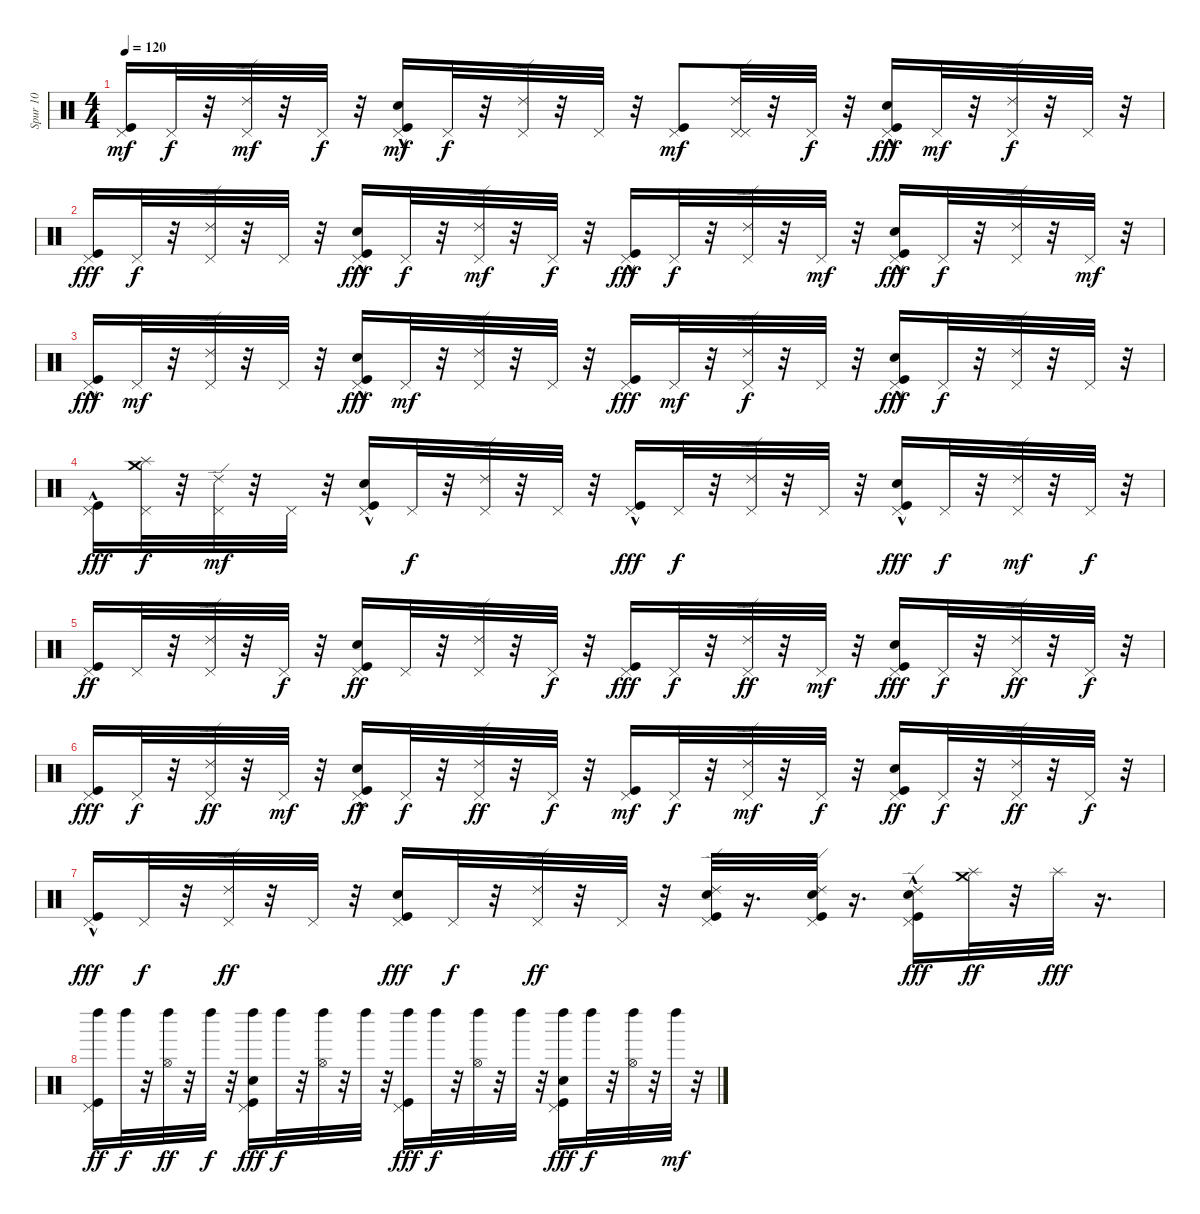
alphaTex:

\track ("Spur 10" "Spur 10") {instrument percussion}
\staff {score}
\articulation defaults
\ts (4 4)
\tempo 120
\clef neutral
\ks c
("Kick (hit)" "Pedal Hi-Hat (hit)").16{dy mf} "Pedal Hi-Hat (hit)".32{dy f} r.32 ("Ride (edge) 2" "Pedal Hi-Hat (hit)").32{dy mf} r.32 "Pedal Hi-Hat (hit)".32{dy f} r.32 ("Snare (hit) 2"{hac} "Kick (hit)" "Pedal Hi-Hat (hit)").16{dy mf} "Pedal Hi-Hat (hit)".32{dy f} r.32 ("Ride (edge) 2" "Pedal Hi-Hat (hit)").32 r.32 "Pedal Hi-Hat (hit)".32 r.32 ("Kick (hit)" "Pedal Hi-Hat (hit)").8{dy mf} ("Ride (edge) 2" "Pedal Hi-Hat (hit)" "Pedal Hi-Hat (hit)").32 r.32 "Pedal Hi-Hat (hit)".32{dy f} r.32 ("Kick (hit)"{hac} "Snare (hit) 2"{hac} "Pedal Hi-Hat (hit)").16{dy fff} "Pedal Hi-Hat (hit)".32{dy mf} r.32 ("Ride (edge) 2" "Pedal Hi-Hat (hit)").32{dy f} r.32 "Pedal Hi-Hat (hit)".32 r.32 |
("Kick (hit)" "Pedal Hi-Hat (hit)").16{dy fff} "Pedal Hi-Hat (hit)".32{dy f} r.32 ("Ride (edge) 2" "Pedal Hi-Hat (hit)").32 r.32 "Pedal Hi-Hat (hit)".32 r.32 ("Snare (hit) 2" "Kick (hit)"{hac} "Pedal Hi-Hat (hit)").16{dy fff} "Pedal Hi-Hat (hit)".32{dy f} r.32 ("Ride (edge) 2" "Pedal Hi-Hat (hit)").32{dy mf} r.32 "Pedal Hi-Hat (hit)".32{dy f} r.32 ("Kick (hit)"{hac} "Pedal Hi-Hat (hit)").16{dy fff} "Pedal Hi-Hat (hit)".32{dy f} r.32 ("Ride (edge) 2" "Pedal Hi-Hat (hit)").32 r.32 "Pedal Hi-Hat (hit)".32{dy mf} r.32 ("Snare (hit) 2"{hac} "Kick (hit)" "Pedal Hi-Hat (hit)").16{dy fff} "Pedal Hi-Hat (hit)".32{dy f} r.32 ("Ride (edge) 2" "Pedal Hi-Hat (hit)").32 r.32 "Pedal Hi-Hat (hit)".32{dy mf} r.32 |
("Kick (hit)"{hac} "Pedal Hi-Hat (hit)").16{dy fff} "Pedal Hi-Hat (hit)".32{dy mf} r.32 ("Ride (edge) 2" "Pedal Hi-Hat (hit)").32 r.32 "Pedal Hi-Hat (hit)".32 r.32 ("Snare (hit) 2"{hac} "Kick (hit)" "Pedal Hi-Hat (hit)").16{dy fff} "Pedal Hi-Hat (hit)".32{dy mf} r.32 ("Ride (edge) 2" "Pedal Hi-Hat (hit)").32 r.32 "Pedal Hi-Hat (hit)".32 r.32 ("Kick (hit)" "Pedal Hi-Hat (hit)").16{dy fff} "Pedal Hi-Hat (hit)".32{dy mf} r.32 ("Ride (edge) 2" "Pedal Hi-Hat (hit)").32{dy f} r.32 "Pedal Hi-Hat (hit)".32 r.32 ("Snare (hit) 2"{hac} "Kick (hit)"{hac} "Pedal Hi-Hat (hit)").16{dy fff} "Pedal Hi-Hat (hit)".32{dy f} r.32 ("Ride (edge) 2" "Pedal Hi-Hat (hit)").32 r.32 "Pedal Hi-Hat (hit)".32 r.32 |
("Kick (hit)"{hac} "Pedal Hi-Hat (hit)").16{dy fff} ("Pedal Hi-Hat (hit)" "Crash medium (hit)" "Splash (hit)").32{dy f} r.32 ("Ride (edge) 2" "Pedal Hi-Hat (hit)").32{dy mf} r.32 "Pedal Hi-Hat (hit)".32 r.32 ("Snare (hit) 2"{hac} "Kick (hit)"{hac} "Pedal Hi-Hat (hit)").16 "Pedal Hi-Hat (hit)".32{dy f} r.32 ("Ride (edge) 2" "Pedal Hi-Hat (hit)").32 r.32 "Pedal Hi-Hat (hit)".32 r.32 ("Kick (hit)"{hac} "Pedal Hi-Hat (hit)").16{dy fff} "Pedal Hi-Hat (hit)".32{dy f} r.32 ("Ride (edge) 2" "Pedal Hi-Hat (hit)").32 r.32 "Pedal Hi-Hat (hit)".32 r.32 ("Snare (hit) 2"{hac} "Kick (hit)"{hac} "Pedal Hi-Hat (hit)").16{dy fff} "Pedal Hi-Hat (hit)".32{dy f} r.32 ("Ride (edge) 2" "Pedal Hi-Hat (hit)").32{dy mf} r.32 "Pedal Hi-Hat (hit)".32{dy f} r.32 |
("Kick (hit)" "Pedal Hi-Hat (hit)").16{dy ff} "Pedal Hi-Hat (hit)".32 r.32 ("Ride (edge) 2" "Pedal Hi-Hat (hit)").32 r.32 "Pedal Hi-Hat (hit)".32{dy f} r.32 ("Snare (hit) 2" "Kick (hit)" "Pedal Hi-Hat (hit)").16{dy ff} "Pedal Hi-Hat (hit)".32 r.32 ("Ride (edge) 2" "Pedal Hi-Hat (hit)").32 r.32 "Pedal Hi-Hat (hit)".32{dy f} r.32 ("Kick (hit)" "Pedal Hi-Hat (hit)").16{dy fff} "Pedal Hi-Hat (hit)".32{dy f} r.32 ("Ride (edge) 2" "Pedal Hi-Hat (hit)").32{dy ff} r.32 "Pedal Hi-Hat (hit)".32{dy mf} r.32 ("Snare (hit) 2" "Kick (hit)" "Pedal Hi-Hat (hit)").16{dy fff} "Pedal Hi-Hat (hit)".32{dy f} r.32 ("Ride (edge) 2" "Pedal Hi-Hat (hit)").32{dy ff} r.32 "Pedal Hi-Hat (hit)".32{dy f} r.32 |
("Kick (hit)" "Pedal Hi-Hat (hit)").16{dy fff} "Pedal Hi-Hat (hit)".32{dy f} r.32 ("Ride (edge) 2" "Pedal Hi-Hat (hit)").32{dy ff} r.32 "Pedal Hi-Hat (hit)".32{dy mf} r.32 ("Kick (hit)" "Snare (hit) 2"{hac} "Pedal Hi-Hat (hit)").16{dy ff} "Pedal Hi-Hat (hit)".32{dy f} r.32 ("Ride (edge) 2" "Pedal Hi-Hat (hit)").32{dy ff} r.32 "Pedal Hi-Hat (hit)".32{dy f} r.32 ("Kick (hit)" "Pedal Hi-Hat (hit)").16{dy mf} "Pedal Hi-Hat (hit)".32{dy f} r.32 ("Ride (edge) 2" "Pedal Hi-Hat (hit)").32{dy mf} r.32 "Pedal Hi-Hat (hit)".32{dy f} r.32 ("Kick (hit)" "Snare (hit) 2" "Pedal Hi-Hat (hit)").16{dy ff} "Pedal Hi-Hat (hit)".32{dy f} r.32 ("Ride (edge) 2" "Pedal Hi-Hat (hit)").32{dy ff} r.32 "Pedal Hi-Hat (hit)".32{dy f} r.32 |
("Kick (hit)"{hac} "Pedal Hi-Hat (hit)").16{dy fff} "Pedal Hi-Hat (hit)".32{dy f} r.32 ("Ride (edge) 2" "Pedal Hi-Hat (hit)").32{dy ff} r.32 "Pedal Hi-Hat (hit)".32 r.32 ("Snare (hit) 2" "Kick (hit)" "Pedal Hi-Hat (hit)").16{dy fff} "Pedal Hi-Hat (hit)".32{dy f} r.32 ("Ride (edge) 2" "Pedal Hi-Hat (hit)").32{dy ff} r.32 "Pedal Hi-Hat (hit)".32 r.32 ("Snare (hit) 2" "Kick (hit)" "Ride (edge) 2" "Pedal Hi-Hat (hit)").32 r.16{d} ("Snare (hit) 2" "Kick (hit)" "Ride (edge) 2" "Pedal Hi-Hat (hit)").32 r.16{d} ("Snare (hit) 2" "Kick (hit)"{hac} "Ride (edge) 2" "Pedal Hi-Hat (hit)").16{dy fff} ("Crash medium (hit)" "Splash (hit)").32{dy ff} r.32 "Splash (hit)".32{dy fff} r.16{d} |
("Kick (hit)" "Pedal Hi-Hat (hit)" "Left Maraca (hit)").16{dy ff} "Left Maraca (hit)".32{dy f} r.32 ("Hi-Hat (open)" "Left Maraca (hit)").32{dy ff} r.32 "Left Maraca (hit)".32{dy f} r.32 ("Snare (hit) 2" "Kick (hit)" "Pedal Hi-Hat (hit)" "Left Maraca (hit)").16{dy fff} "Left Maraca (hit)".32{dy f} r.32 ("Hi-Hat (open)" "Left Maraca (hit)").32 r.32 "Left Maraca (hit)".32 r.32 ("Kick (hit)" "Pedal Hi-Hat (hit)" "Left Maraca (hit)").16{dy fff} "Left Maraca (hit)".32{dy f} r.32 ("Hi-Hat (open)" "Left Maraca (hit)").32 r.32 "Left Maraca (hit)".32 r.32 ("Snare (hit) 2" "Kick (hit)" "Pedal Hi-Hat (hit)" "Left Maraca (hit)").16{dy fff} "Left Maraca (hit)".32{dy f} r.32 ("Hi-Hat (open)" "Left Maraca (hit)").32 r.32 "Left Maraca (hit)".32{dy mf} r.32
